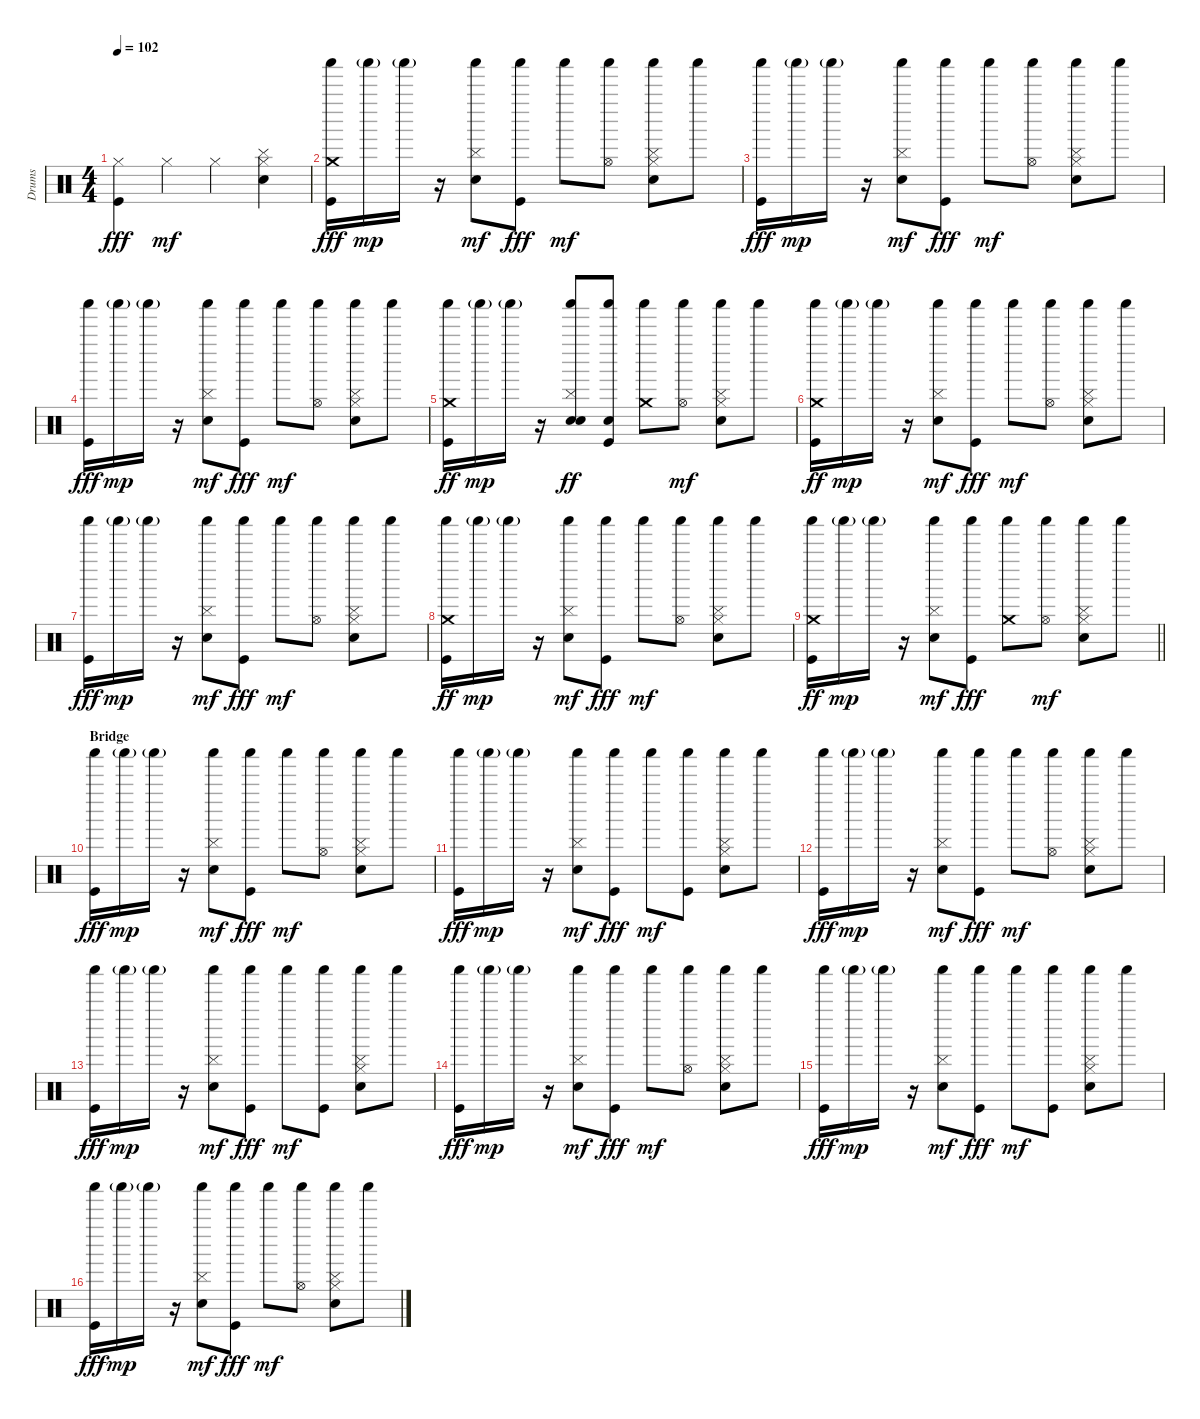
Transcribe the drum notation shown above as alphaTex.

\track ("Drums" "Drums") {instrument percussion}
\staff {score}
\articulation defaults
\ts (4 4)
\tempo 102
\clef neutral
\ks c
("Hi-Hat (closed)" "Kick (hit)").4{dy fff} "Hi-Hat (closed)".4{dy mf} "Hi-Hat (closed)".4 ("Hi-Hat (closed)" "Hand Clap (hit)" "Cymbal (hit)").4 |
("Shaker (hit)" "Crash medium (hit)" "Kick (hit)").16{dy fff} "Shaker (hit)"{g}.16{dy mp} "Shaker (hit)"{g}.16 r.16 ("Shaker (hit)" "Hand Clap (hit)" "Cymbal (hit)").8{dy mf} ("Shaker (hit)" "Kick (hit)").8{dy fff} "Shaker (hit)".8{dy mf} ("Shaker (hit)" "Hi-Hat (open)").8 ("Hi-Hat (closed)" "Hand Clap (hit)" "Cymbal (hit)" "Shaker (hit)").8 "Shaker (hit)".8 |
("Shaker (hit)" "Kick (hit)").16{dy fff} "Shaker (hit)"{g}.16{dy mp} "Shaker (hit)"{g}.16 r.16 ("Shaker (hit)" "Hand Clap (hit)" "Cymbal (hit)").8{dy mf} ("Shaker (hit)" "Kick (hit)").8{dy fff} "Shaker (hit)".8{dy mf} ("Shaker (hit)" "Hi-Hat (open)").8 ("Hi-Hat (closed)" "Hand Clap (hit)" "Cymbal (hit)" "Shaker (hit)").8 "Shaker (hit)".8 |
("Shaker (hit)" "Kick (hit)").16{dy fff} "Shaker (hit)"{g}.16{dy mp} "Shaker (hit)"{g}.16 r.16 ("Shaker (hit)" "Hand Clap (hit)" "Cymbal (hit)").8{dy mf} ("Shaker (hit)" "Kick (hit)").8{dy fff} "Shaker (hit)".8{dy mf} ("Shaker (hit)" "Hi-Hat (open)").8 ("Hi-Hat (closed)" "Hand Clap (hit)" "Cymbal (hit)" "Shaker (hit)").8 "Shaker (hit)".8 |
("Shaker (hit)" "Kick (hit)" "Crash medium (hit)").16{dy ff} "Shaker (hit)"{g}.16{dy mp} "Shaker (hit)"{g}.16 r.16 ("Shaker (hit)" "Hand Clap (hit)" "Cymbal (hit)" "Snare (hit)").8{dy ff} ("Shaker (hit)" "Kick (hit)" "Snare (hit)").8 ("Shaker (hit)" "Crash medium (hit)").8 ("Shaker (hit)" "Hi-Hat (open)").8{dy mf} ("Hi-Hat (closed)" "Hand Clap (hit)" "Cymbal (hit)" "Shaker (hit)").8 "Shaker (hit)".8 |
("Shaker (hit)" "Kick (hit)" "Crash medium (hit)").16{dy ff} "Shaker (hit)"{g}.16{dy mp} "Shaker (hit)"{g}.16 r.16 ("Shaker (hit)" "Hand Clap (hit)" "Cymbal (hit)").8{dy mf} ("Shaker (hit)" "Kick (hit)").8{dy fff} "Shaker (hit)".8{dy mf} ("Shaker (hit)" "Hi-Hat (open)").8 ("Hi-Hat (closed)" "Hand Clap (hit)" "Cymbal (hit)" "Shaker (hit)").8 "Shaker (hit)".8 |
("Shaker (hit)" "Kick (hit)").16{dy fff} "Shaker (hit)"{g}.16{dy mp} "Shaker (hit)"{g}.16 r.16 ("Shaker (hit)" "Hand Clap (hit)" "Cymbal (hit)").8{dy mf} ("Shaker (hit)" "Kick (hit)").8{dy fff} "Shaker (hit)".8{dy mf} ("Shaker (hit)" "Hi-Hat (open)").8 ("Hi-Hat (closed)" "Hand Clap (hit)" "Cymbal (hit)" "Shaker (hit)").8 "Shaker (hit)".8 |
("Shaker (hit)" "Kick (hit)" "Crash medium (hit)").16{dy ff} "Shaker (hit)"{g}.16{dy mp} "Shaker (hit)"{g}.16 r.16 ("Shaker (hit)" "Hand Clap (hit)" "Cymbal (hit)").8{dy mf} ("Shaker (hit)" "Kick (hit)").8{dy fff} "Shaker (hit)".8{dy mf} ("Shaker (hit)" "Hi-Hat (open)").8 ("Hi-Hat (closed)" "Hand Clap (hit)" "Cymbal (hit)" "Shaker (hit)").8 "Shaker (hit)".8 |
\barLineRight lightlight
("Shaker (hit)" "Kick (hit)" "Crash medium (hit)").16{dy ff} "Shaker (hit)"{g}.16{dy mp} "Shaker (hit)"{g}.16 r.16 ("Shaker (hit)" "Hand Clap (hit)" "Cymbal (hit)").8{dy mf} ("Shaker (hit)" "Kick (hit)").8{dy fff} ("Shaker (hit)" "Crash medium (hit)").8 ("Shaker (hit)" "Hi-Hat (open)").8{dy mf} ("Hi-Hat (closed)" "Hand Clap (hit)" "Cymbal (hit)" "Shaker (hit)").8 "Shaker (hit)".8 |
\section ("" "Bridge")
("Shaker (hit)" "Kick (hit)").16{dy fff} "Shaker (hit)"{g}.16{dy mp} "Shaker (hit)"{g}.16 r.16 ("Shaker (hit)" "Hand Clap (hit)" "Cymbal (hit)").8{dy mf} ("Shaker (hit)" "Kick (hit)").8{dy fff} "Shaker (hit)".8{dy mf} ("Shaker (hit)" "Hi-Hat (open)").8 ("Hi-Hat (closed)" "Hand Clap (hit)" "Cymbal (hit)" "Shaker (hit)").8 "Shaker (hit)".8 |
("Shaker (hit)" "Kick (hit)").16{dy fff} "Shaker (hit)"{g}.16{dy mp} "Shaker (hit)"{g}.16 r.16 ("Shaker (hit)" "Hand Clap (hit)" "Cymbal (hit)").8{dy mf} ("Shaker (hit)" "Kick (hit)").8{dy fff} "Shaker (hit)".8{dy mf} ("Shaker (hit)" "Kick (hit)").8 ("Hi-Hat (closed)" "Hand Clap (hit)" "Cymbal (hit)" "Shaker (hit)").8 "Shaker (hit)".8 |
("Shaker (hit)" "Kick (hit)").16{dy fff} "Shaker (hit)"{g}.16{dy mp} "Shaker (hit)"{g}.16 r.16 ("Shaker (hit)" "Hand Clap (hit)" "Cymbal (hit)").8{dy mf} ("Shaker (hit)" "Kick (hit)").8{dy fff} "Shaker (hit)".8{dy mf} ("Shaker (hit)" "Hi-Hat (open)").8 ("Hi-Hat (closed)" "Hand Clap (hit)" "Cymbal (hit)" "Shaker (hit)").8 "Shaker (hit)".8 |
("Shaker (hit)" "Kick (hit)").16{dy fff} "Shaker (hit)"{g}.16{dy mp} "Shaker (hit)"{g}.16 r.16 ("Shaker (hit)" "Hand Clap (hit)" "Cymbal (hit)").8{dy mf} ("Shaker (hit)" "Kick (hit)").8{dy fff} "Shaker (hit)".8{dy mf} ("Shaker (hit)" "Kick (hit)").8 ("Hi-Hat (closed)" "Hand Clap (hit)" "Cymbal (hit)" "Shaker (hit)").8 "Shaker (hit)".8 |
("Shaker (hit)" "Kick (hit)").16{dy fff} "Shaker (hit)"{g}.16{dy mp} "Shaker (hit)"{g}.16 r.16 ("Shaker (hit)" "Hand Clap (hit)" "Cymbal (hit)").8{dy mf} ("Shaker (hit)" "Kick (hit)").8{dy fff} "Shaker (hit)".8{dy mf} ("Shaker (hit)" "Hi-Hat (open)").8 ("Hi-Hat (closed)" "Hand Clap (hit)" "Cymbal (hit)" "Shaker (hit)").8 "Shaker (hit)".8 |
("Shaker (hit)" "Kick (hit)").16{dy fff} "Shaker (hit)"{g}.16{dy mp} "Shaker (hit)"{g}.16 r.16 ("Shaker (hit)" "Hand Clap (hit)" "Cymbal (hit)").8{dy mf} ("Shaker (hit)" "Kick (hit)").8{dy fff} "Shaker (hit)".8{dy mf} ("Shaker (hit)" "Kick (hit)").8 ("Hi-Hat (closed)" "Hand Clap (hit)" "Cymbal (hit)" "Shaker (hit)").8 "Shaker (hit)".8 |
("Shaker (hit)" "Kick (hit)").16{dy fff} "Shaker (hit)"{g}.16{dy mp} "Shaker (hit)"{g}.16 r.16 ("Shaker (hit)" "Hand Clap (hit)" "Cymbal (hit)").8{dy mf} ("Shaker (hit)" "Kick (hit)").8{dy fff} "Shaker (hit)".8{dy mf} ("Shaker (hit)" "Hi-Hat (open)").8 ("Hi-Hat (closed)" "Hand Clap (hit)" "Cymbal (hit)" "Shaker (hit)").8 "Shaker (hit)".8
